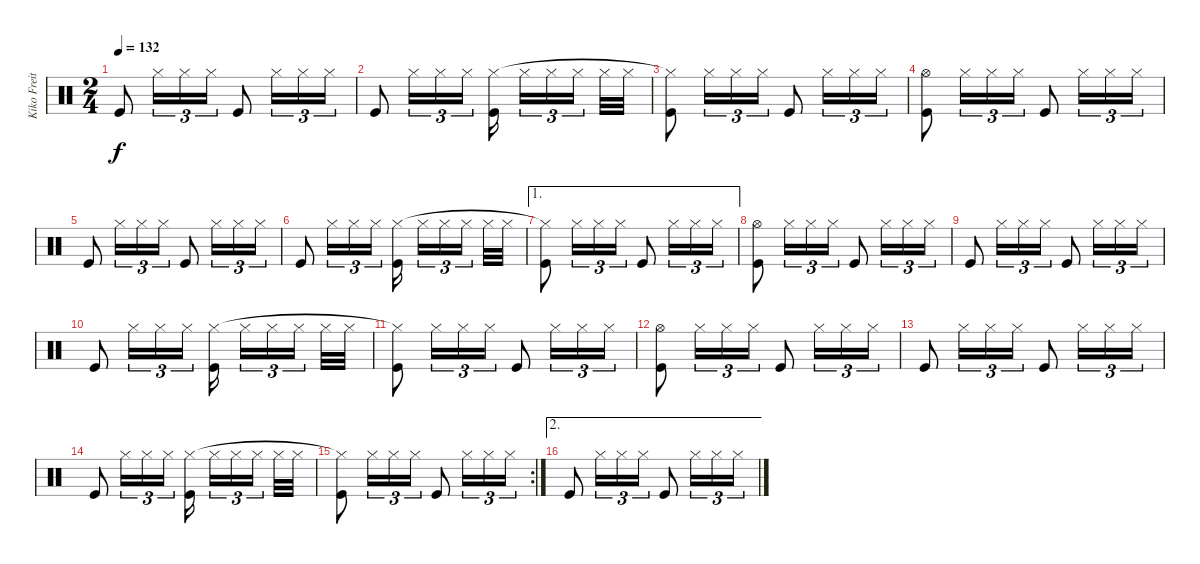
\track ("Kiko Freitas" "Kiko Freit") {instrument percussion}
\staff {score}
\articulation defaults
\ts (2 4)
\tempo 132
\clef neutral
\ks c "Kick (hit)".8{dy f} "Hi-Hat (closed)".16{tu (3 2)} "Hi-Hat (closed)".16{tu (3 2)} "Hi-Hat (closed)".16{tu (3 2)} "Kick (hit)".8 "Hi-Hat (closed)".16{tu (3 2)} "Hi-Hat (closed)".16{tu (3 2)} "Hi-Hat (closed)".16{tu (3 2)}
|
"Kick (hit)".8 "Hi-Hat (closed)".16{tu (3 2)} "Hi-Hat (closed)".16{tu (3 2)} "Hi-Hat (closed)".16{tu (3 2)} ("Kick (hit)" "Hi-Hat (closed)").16 "Hi-Hat (closed)".16{tu (3 2)} "Hi-Hat (closed)".16{tu (3 2)} "Hi-Hat (closed)".16{tu (3 2)} "Hi-Hat (closed)".32 "Hi-Hat (closed)".32 |
("Kick (hit)" "Hi-Hat (closed)"{t}).8 "Hi-Hat (closed)".16{tu (3 2)} "Hi-Hat (closed)".16{tu (3 2)} "Hi-Hat (closed)".16{tu (3 2)} "Kick (hit)".8 "Hi-Hat (closed)".16{tu (3 2)} "Hi-Hat (closed)".16{tu (3 2)} "Hi-Hat (closed)".16{tu (3 2)} |
("Kick (hit)" "Hi-Hat (open)").8 "Hi-Hat (closed)".16{tu (3 2)} "Hi-Hat (closed)".16{tu (3 2)} "Hi-Hat (closed)".16{tu (3 2)} "Kick (hit)".8 "Hi-Hat (closed)".16{tu (3 2)} "Hi-Hat (closed)".16{tu (3 2)} "Hi-Hat (closed)".16{tu (3 2)} |
"Kick (hit)".8 "Hi-Hat (closed)".16{tu (3 2)} "Hi-Hat (closed)".16{tu (3 2)} "Hi-Hat (closed)".16{tu (3 2)} "Kick (hit)".8 "Hi-Hat (closed)".16{tu (3 2)} "Hi-Hat (closed)".16{tu (3 2)} "Hi-Hat (closed)".16{tu (3 2)} |
"Kick (hit)".8 "Hi-Hat (closed)".16{tu (3 2)} "Hi-Hat (closed)".16{tu (3 2)} "Hi-Hat (closed)".16{tu (3 2)} ("Kick (hit)" "Hi-Hat (closed)").16 "Hi-Hat (closed)".16{tu (3 2)} "Hi-Hat (closed)".16{tu (3 2)} "Hi-Hat (closed)".16{tu (3 2)} "Hi-Hat (closed)".32 "Hi-Hat (closed)".32 |
\ae 1
("Kick (hit)" "Hi-Hat (closed)"{t}).8 "Hi-Hat (closed)".16{tu (3 2)} "Hi-Hat (closed)".16{tu (3 2)} "Hi-Hat (closed)".16{tu (3 2)} "Kick (hit)".8 "Hi-Hat (closed)".16{tu (3 2)} "Hi-Hat (closed)".16{tu (3 2)} "Hi-Hat (closed)".16{tu (3 2)} |
("Kick (hit)" "Hi-Hat (open)").8 "Hi-Hat (closed)".16{tu (3 2)} "Hi-Hat (closed)".16{tu (3 2)} "Hi-Hat (closed)".16{tu (3 2)} "Kick (hit)".8 "Hi-Hat (closed)".16{tu (3 2)} "Hi-Hat (closed)".16{tu (3 2)} "Hi-Hat (closed)".16{tu (3 2)} |
"Kick (hit)".8 "Hi-Hat (closed)".16{tu (3 2)} "Hi-Hat (closed)".16{tu (3 2)} "Hi-Hat (closed)".16{tu (3 2)} "Kick (hit)".8 "Hi-Hat (closed)".16{tu (3 2)} "Hi-Hat (closed)".16{tu (3 2)} "Hi-Hat (closed)".16{tu (3 2)} |
"Kick (hit)".8 "Hi-Hat (closed)".16{tu (3 2)} "Hi-Hat (closed)".16{tu (3 2)} "Hi-Hat (closed)".16{tu (3 2)} ("Kick (hit)" "Hi-Hat (closed)").16 "Hi-Hat (closed)".16{tu (3 2)} "Hi-Hat (closed)".16{tu (3 2)} "Hi-Hat (closed)".16{tu (3 2)} "Hi-Hat (closed)".32 "Hi-Hat (closed)".32 |
("Kick (hit)" "Hi-Hat (closed)"{t}).8 "Hi-Hat (closed)".16{tu (3 2)} "Hi-Hat (closed)".16{tu (3 2)} "Hi-Hat (closed)".16{tu (3 2)} "Kick (hit)".8 "Hi-Hat (closed)".16{tu (3 2)} "Hi-Hat (closed)".16{tu (3 2)} "Hi-Hat (closed)".16{tu (3 2)} |
("Kick (hit)" "Hi-Hat (open)").8 "Hi-Hat (closed)".16{tu (3 2)} "Hi-Hat (closed)".16{tu (3 2)} "Hi-Hat (closed)".16{tu (3 2)} "Kick (hit)".8 "Hi-Hat (closed)".16{tu (3 2)} "Hi-Hat (closed)".16{tu (3 2)} "Hi-Hat (closed)".16{tu (3 2)} |
"Kick (hit)".8 "Hi-Hat (closed)".16{tu (3 2)} "Hi-Hat (closed)".16{tu (3 2)} "Hi-Hat (closed)".16{tu (3 2)} "Kick (hit)".8 "Hi-Hat (closed)".16{tu (3 2)} "Hi-Hat (closed)".16{tu (3 2)} "Hi-Hat (closed)".16{tu (3 2)} |
"Kick (hit)".8 "Hi-Hat (closed)".16{tu (3 2)} "Hi-Hat (closed)".16{tu (3 2)} "Hi-Hat (closed)".16{tu (3 2)} ("Kick (hit)" "Hi-Hat (closed)").16 "Hi-Hat (closed)".16{tu (3 2)} "Hi-Hat (closed)".16{tu (3 2)} "Hi-Hat (closed)".16{tu (3 2)} "Hi-Hat (closed)".32 "Hi-Hat (closed)".32 |
\rc 2
("Kick (hit)" "Hi-Hat (closed)"{t}).8 "Hi-Hat (closed)".16{tu (3 2)} "Hi-Hat (closed)".16{tu (3 2)} "Hi-Hat (closed)".16{tu (3 2)} "Kick (hit)".8 "Hi-Hat (closed)".16{tu (3 2)} "Hi-Hat (closed)".16{tu (3 2)} "Hi-Hat (closed)".16{tu (3 2)} |
\ae 2 "Kick (hit)".8 "Hi-Hat (closed)".16{tu (3 2)} "Hi-Hat (closed)".16{tu (3 2)} "Hi-Hat (closed)".16{tu (3 2)} "Kick (hit)".8 "Hi-Hat (closed)".16{tu (3 2)} "Hi-Hat (closed)".16{tu (3 2)} "Hi-Hat (closed)".16{tu (3 2)}
